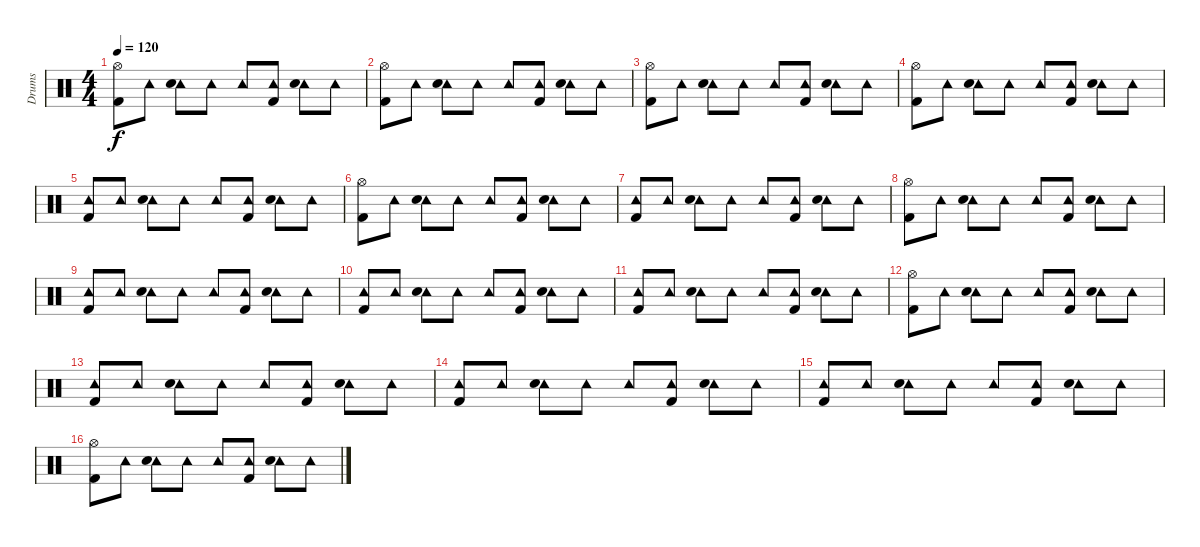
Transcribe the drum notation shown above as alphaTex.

\track ("Drums" "Drums") {instrument percussion}
\staff {score}
\articulation defaults
\ts (4 4)
\tempo 120
\clef neutral
\ks c
("Hi-Hat (open)" "Kick (hit) 2").8{dy f} "Tambourine (hit)".8 ("Tambourine (hit)" "Hand Clap (hit)").8 "Tambourine (hit)".8 "Tambourine (hit)".8 ("Tambourine (hit)" "Kick (hit) 2").8 ("Tambourine (hit)" "Hand Clap (hit)").8 "Tambourine (hit)".8 |
("Hi-Hat (open)" "Kick (hit) 2").8 "Tambourine (hit)".8 ("Tambourine (hit)" "Hand Clap (hit)").8 "Tambourine (hit)".8 "Tambourine (hit)".8 ("Tambourine (hit)" "Kick (hit) 2").8 ("Tambourine (hit)" "Hand Clap (hit)").8 "Tambourine (hit)".8 |
("Hi-Hat (open)" "Kick (hit) 2").8 "Tambourine (hit)".8 ("Tambourine (hit)" "Hand Clap (hit)").8 "Tambourine (hit)".8 "Tambourine (hit)".8 ("Tambourine (hit)" "Kick (hit) 2").8 ("Tambourine (hit)" "Hand Clap (hit)").8 "Tambourine (hit)".8 |
("Hi-Hat (open)" "Kick (hit) 2").8 "Tambourine (hit)".8 ("Tambourine (hit)" "Hand Clap (hit)").8 "Tambourine (hit)".8 "Tambourine (hit)".8 ("Tambourine (hit)" "Kick (hit) 2").8 ("Tambourine (hit)" "Hand Clap (hit)").8 "Tambourine (hit)".8 |
("Tambourine (hit)" "Kick (hit) 2").8 "Tambourine (hit)".8 ("Tambourine (hit)" "Hand Clap (hit)").8 "Tambourine (hit)".8 "Tambourine (hit)".8 ("Tambourine (hit)" "Kick (hit) 2").8 ("Tambourine (hit)" "Hand Clap (hit)").8 "Tambourine (hit)".8 |
("Hi-Hat (open)" "Kick (hit) 2").8 "Tambourine (hit)".8 ("Tambourine (hit)" "Hand Clap (hit)").8 "Tambourine (hit)".8 "Tambourine (hit)".8 ("Tambourine (hit)" "Kick (hit) 2").8 ("Tambourine (hit)" "Hand Clap (hit)").8 "Tambourine (hit)".8 |
("Tambourine (hit)" "Kick (hit) 2").8 "Tambourine (hit)".8 ("Tambourine (hit)" "Hand Clap (hit)").8 "Tambourine (hit)".8 "Tambourine (hit)".8 ("Tambourine (hit)" "Kick (hit) 2").8 ("Tambourine (hit)" "Hand Clap (hit)").8 "Tambourine (hit)".8 |
("Hi-Hat (open)" "Kick (hit) 2").8 "Tambourine (hit)".8 ("Tambourine (hit)" "Hand Clap (hit)").8 "Tambourine (hit)".8 "Tambourine (hit)".8 ("Tambourine (hit)" "Kick (hit) 2").8 ("Tambourine (hit)" "Hand Clap (hit)").8 "Tambourine (hit)".8 |
("Tambourine (hit)" "Kick (hit) 2").8 "Tambourine (hit)".8 ("Tambourine (hit)" "Hand Clap (hit)").8 "Tambourine (hit)".8 "Tambourine (hit)".8 ("Tambourine (hit)" "Kick (hit) 2").8 ("Tambourine (hit)" "Hand Clap (hit)").8 "Tambourine (hit)".8 |
("Tambourine (hit)" "Kick (hit) 2").8 "Tambourine (hit)".8 ("Tambourine (hit)" "Hand Clap (hit)").8 "Tambourine (hit)".8 "Tambourine (hit)".8 ("Tambourine (hit)" "Kick (hit) 2").8 ("Tambourine (hit)" "Hand Clap (hit)").8 "Tambourine (hit)".8 |
("Tambourine (hit)" "Kick (hit) 2").8 "Tambourine (hit)".8 ("Tambourine (hit)" "Hand Clap (hit)").8 "Tambourine (hit)".8 "Tambourine (hit)".8 ("Tambourine (hit)" "Kick (hit) 2").8 ("Tambourine (hit)" "Hand Clap (hit)").8 "Tambourine (hit)".8 |
("Hi-Hat (open)" "Kick (hit) 2").8 "Tambourine (hit)".8 ("Tambourine (hit)" "Hand Clap (hit)").8 "Tambourine (hit)".8 "Tambourine (hit)".8 ("Tambourine (hit)" "Kick (hit) 2").8 ("Tambourine (hit)" "Hand Clap (hit)").8 "Tambourine (hit)".8 |
("Tambourine (hit)" "Kick (hit) 2").8 "Tambourine (hit)".8 ("Tambourine (hit)" "Hand Clap (hit)").8 "Tambourine (hit)".8 "Tambourine (hit)".8 ("Tambourine (hit)" "Kick (hit) 2").8 ("Tambourine (hit)" "Hand Clap (hit)").8 "Tambourine (hit)".8 |
("Tambourine (hit)" "Kick (hit) 2").8 "Tambourine (hit)".8 ("Tambourine (hit)" "Hand Clap (hit)").8 "Tambourine (hit)".8 "Tambourine (hit)".8 ("Tambourine (hit)" "Kick (hit) 2").8 ("Tambourine (hit)" "Hand Clap (hit)").8 "Tambourine (hit)".8 |
("Tambourine (hit)" "Kick (hit) 2").8 "Tambourine (hit)".8 ("Tambourine (hit)" "Hand Clap (hit)").8 "Tambourine (hit)".8 "Tambourine (hit)".8 ("Tambourine (hit)" "Kick (hit) 2").8 ("Tambourine (hit)" "Hand Clap (hit)").8 "Tambourine (hit)".8 |
("Hi-Hat (open)" "Kick (hit) 2").8 "Tambourine (hit)".8 ("Tambourine (hit)" "Hand Clap (hit)").8 "Tambourine (hit)".8 "Tambourine (hit)".8 ("Tambourine (hit)" "Kick (hit) 2").8 ("Tambourine (hit)" "Hand Clap (hit)").8 "Tambourine (hit)".8
